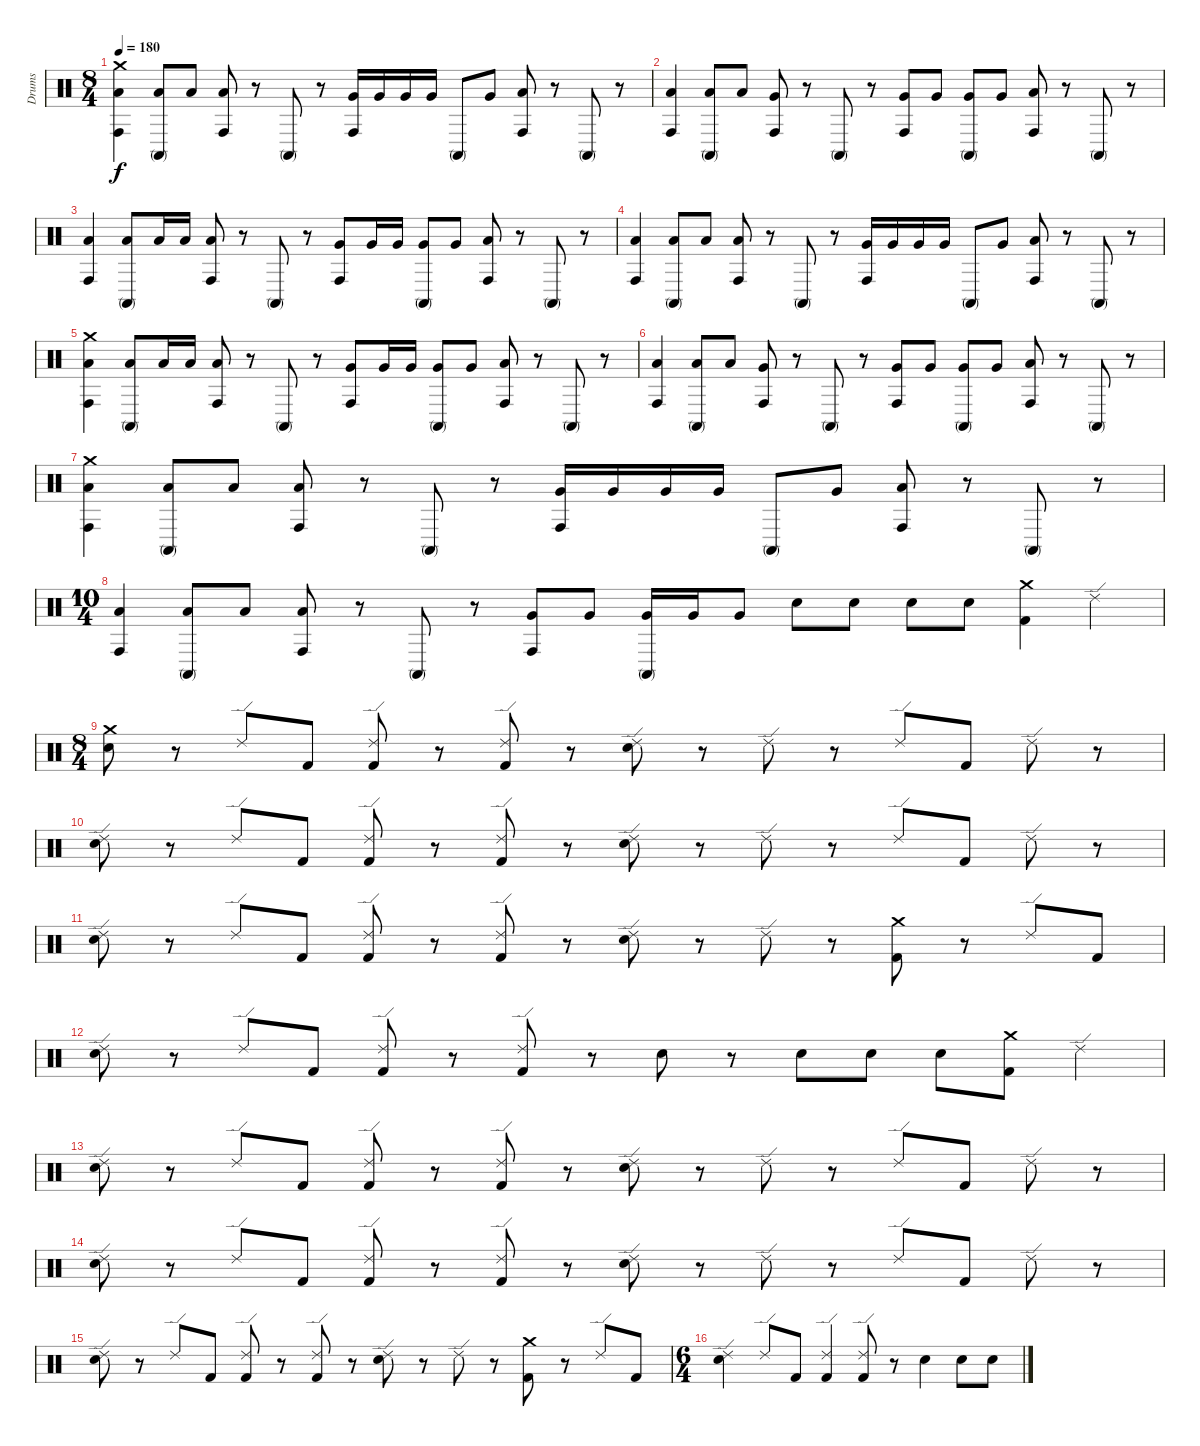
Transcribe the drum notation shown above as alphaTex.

\track ("Drums" "Drums") {instrument percussion}
\staff {score}
\articulation defaults
\ts (8 4)
\tempo 180
\clef neutral
\ks c
("Crash medium (hit)" "Conga high (hit)" "Low Floor Tom (hit)").4{dy f} ("Conga high (mute)" "Low Floor Tom (hit)").8 "Low Floor Tom (hit)".8 ("Conga high (hit)" "Low Tom (hit)").8 r.8 "Conga high (mute)".8 r.8 ("Conga high (hit)" "Very Low Tom (hit)").16 "Very Low Tom (hit)".16 "Very Low Tom (hit)".16 "Very Low Tom (hit)".16 "Conga high (mute)".8 "Very Low Tom (hit)".8 ("Conga high (hit)" "Low Tom (hit)").8 r.8 "Conga high (mute)".8 r.8 |
("Conga high (hit)" "Low Floor Tom (hit)").4 ("Conga high (mute)" "Low Floor Tom (hit)").8 "Low Floor Tom (hit)".8 ("Conga high (hit)" "Very Low Tom (hit)").8 r.8 "Conga high (mute)".8 r.8 ("Conga high (hit)" "Very Low Tom (hit)").8 "Very Low Tom (hit)".8 ("Conga high (mute)" "Very Low Tom (hit)").8 "Very Low Tom (hit)".8 ("Conga high (hit)" "Low Tom (hit)").8 r.8 "Conga high (mute)".8 r.8 |
("Conga high (hit)" "Low Floor Tom (hit)").4 ("Conga high (mute)" "Low Floor Tom (hit)").8 "Low Floor Tom (hit)".16 "Low Floor Tom (hit)".16 ("Conga high (hit)" "Low Tom (hit)").8 r.8 "Conga high (mute)".8 r.8 ("Conga high (hit)" "Very Low Tom (hit)").8 "Very Low Tom (hit)".16 "Very Low Tom (hit)".16 ("Conga high (mute)" "Very Low Tom (hit)").8 "Very Low Tom (hit)".8 ("Conga high (hit)" "Low Tom (hit)").8 r.8 "Conga high (mute)".8 r.8 |
("Conga high (hit)" "Low Floor Tom (hit)").4 ("Conga high (mute)" "Low Floor Tom (hit)").8 "Low Floor Tom (hit)".8 ("Conga high (hit)" "Low Tom (hit)").8 r.8 "Conga high (mute)".8 r.8 ("Conga high (hit)" "Very Low Tom (hit)").16 "Very Low Tom (hit)".16 "Very Low Tom (hit)".16 "Very Low Tom (hit)".16 "Conga high (mute)".8 "Very Low Tom (hit)".8 ("Conga high (hit)" "Low Tom (hit)").8 r.8 "Conga high (mute)".8 r.8 |
("Crash medium (hit)" "Conga high (hit)" "Low Floor Tom (hit)").4 ("Conga high (mute)" "Low Floor Tom (hit)").8 "Low Floor Tom (hit)".16 "Low Floor Tom (hit)".16 ("Conga high (hit)" "Low Tom (hit)").8 r.8 "Conga high (mute)".8 r.8 ("Conga high (hit)" "Very Low Tom (hit)").8 "Very Low Tom (hit)".16 "Very Low Tom (hit)".16 ("Conga high (mute)" "Very Low Tom (hit)").8 "Very Low Tom (hit)".8 ("Conga high (hit)" "Low Tom (hit)").8 r.8 "Conga high (mute)".8 r.8 |
("Conga high (hit)" "Low Floor Tom (hit)").4 ("Conga high (mute)" "Low Floor Tom (hit)").8 "Low Floor Tom (hit)".8 ("Conga high (hit)" "Very Low Tom (hit)").8 r.8 "Conga high (mute)".8 r.8 ("Conga high (hit)" "Very Low Tom (hit)").8 "Very Low Tom (hit)".8 ("Conga high (mute)" "Very Low Tom (hit)").8 "Very Low Tom (hit)".8 ("Conga high (hit)" "Low Tom (hit)").8 r.8 "Conga high (mute)".8 r.8 |
("Crash medium (hit)" "Conga high (hit)" "Low Floor Tom (hit)").4 ("Conga high (mute)" "Low Floor Tom (hit)").8 "Low Floor Tom (hit)".8 ("Conga high (hit)" "Low Tom (hit)").8 r.8 "Conga high (mute)".8 r.8 ("Conga high (hit)" "Very Low Tom (hit)").16 "Very Low Tom (hit)".16 "Very Low Tom (hit)".16 "Very Low Tom (hit)".16 "Conga high (mute)".8 "Very Low Tom (hit)".8 ("Conga high (hit)" "Low Tom (hit)").8 r.8 "Conga high (mute)".8 r.8 |
\ts (10 4)
("Conga high (hit)" "Low Floor Tom (hit)").4 ("Conga high (mute)" "Low Floor Tom (hit)").8 "Low Floor Tom (hit)".8 ("Conga high (hit)" "Low Tom (hit)").8 r.8 "Conga high (mute)".8 r.8 ("Conga high (hit)" "Very Low Tom (hit)").8 "Very Low Tom (hit)".8 ("Conga high (mute)" "Very Low Tom (hit)").16 "Very Low Tom (hit)".16 "Very Low Tom (hit)".8 "Snare (hit) 2".8{volume 10} "Snare (hit) 2".8 "Snare (hit) 2".8 "Snare (hit) 2".8 ("Crash medium (hit)" "Kick (hit) 2").4 "Ride (edge) 2".4 |
\ts (8 4)
("Crash medium (hit)" "Snare (hit) 2").8 r.8 "Ride (edge) 2".8 "Kick (hit) 2".8 ("Ride (edge) 2" "Kick (hit) 2").8 r.8 ("Kick (hit) 2" "Ride (edge) 2").8 r.8 ("Ride (edge) 2" "Snare (hit) 2").8 r.8 "Ride (edge) 2".8 r.8 "Ride (edge) 2".8 "Kick (hit) 2".8 "Ride (edge) 2".8 r.8 |
("Ride (edge) 2" "Snare (hit) 2").8 r.8 "Ride (edge) 2".8 "Kick (hit) 2".8 ("Ride (edge) 2" "Kick (hit) 2").8 r.8 ("Ride (edge) 2" "Kick (hit) 2").8 r.8 ("Ride (edge) 2" "Snare (hit) 2").8 r.8 "Ride (edge) 2".8 r.8 "Ride (edge) 2".8 "Kick (hit) 2".8 "Ride (edge) 2".8 r.8 |
("Ride (edge) 2" "Snare (hit) 2").8 r.8 "Ride (edge) 2".8 "Kick (hit) 2".8 ("Ride (edge) 2" "Kick (hit) 2").8 r.8 ("Ride (edge) 2" "Kick (hit) 2").8 r.8 ("Ride (edge) 2" "Snare (hit) 2").8 r.8 "Ride (edge) 2".8 r.8 ("Crash medium (hit)" "Kick (hit) 2").8 r.8 "Ride (edge) 2".8 "Kick (hit) 2".8 |
("Ride (edge) 2" "Snare (hit) 2").8 r.8 "Ride (edge) 2".8 "Kick (hit) 2".8 ("Ride (edge) 2" "Kick (hit) 2").8 r.8 ("Ride (edge) 2" "Kick (hit) 2").8 r.8 "Snare (hit) 2".8 r.8 "Snare (hit) 2".8 "Snare (hit) 2".8 "Snare (hit) 2".8 ("Crash medium (hit)" "Kick (hit) 2").8 "Ride (edge) 2".4 |
("Ride (edge) 2" "Snare (hit) 2").8 r.8 "Ride (edge) 2".8 "Kick (hit) 2".8 ("Ride (edge) 2" "Kick (hit) 2").8 r.8 ("Kick (hit) 2" "Ride (edge) 2").8 r.8 ("Ride (edge) 2" "Snare (hit) 2").8 r.8 "Ride (edge) 2".8 r.8 "Ride (edge) 2".8 "Kick (hit) 2".8 "Ride (edge) 2".8 r.8 |
("Ride (edge) 2" "Snare (hit) 2").8 r.8 "Ride (edge) 2".8 "Kick (hit) 2".8 ("Ride (edge) 2" "Kick (hit) 2").8 r.8 ("Ride (edge) 2" "Kick (hit) 2").8 r.8 ("Ride (edge) 2" "Snare (hit) 2").8 r.8 "Ride (edge) 2".8 r.8 "Ride (edge) 2".8 "Kick (hit) 2".8 "Ride (edge) 2".8 r.8 |
("Ride (edge) 2" "Snare (hit) 2").8 r.8 "Ride (edge) 2".8 "Kick (hit) 2".8 ("Ride (edge) 2" "Kick (hit) 2").8 r.8 ("Ride (edge) 2" "Kick (hit) 2").8 r.8 ("Ride (edge) 2" "Snare (hit) 2").8 r.8 "Ride (edge) 2".8 r.8 ("Crash medium (hit)" "Kick (hit) 2").8 r.8 "Ride (edge) 2".8 "Kick (hit) 2".8 |
\ts (6 4)
("Ride (edge) 2" "Snare (hit) 2").4 "Ride (edge) 2".8 "Kick (hit) 2".8 ("Ride (edge) 2" "Kick (hit) 2").4 ("Ride (edge) 2" "Kick (hit) 2").8 r.8 "Snare (hit) 2".4 "Snare (hit) 2".8 "Snare (hit) 2".8
